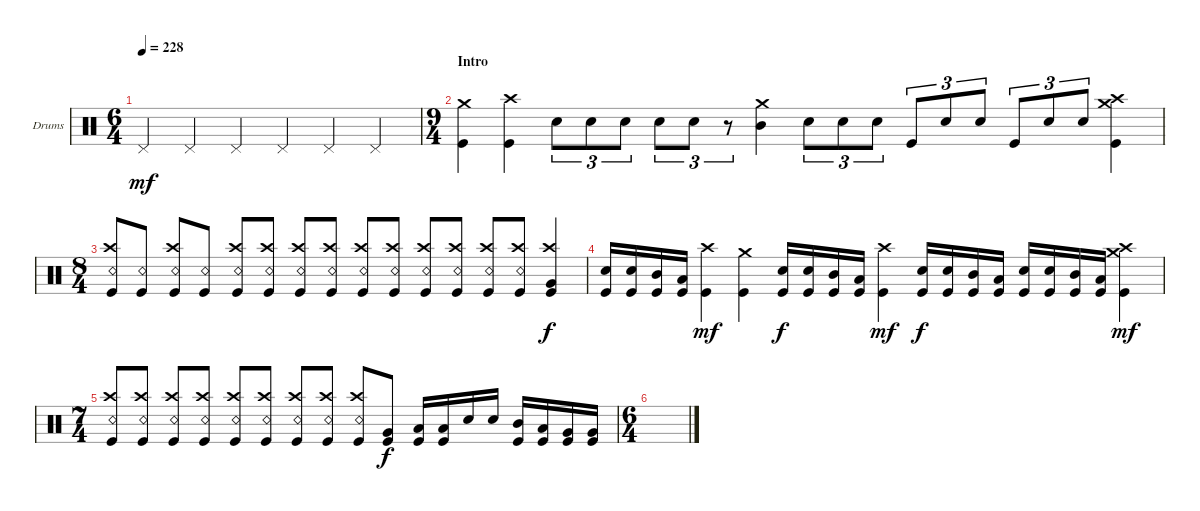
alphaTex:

\defaultSystemsLayout 4
\bracketExtendMode groupsimilarinstruments
\firstSystemTrackNameOrientation horizontal
\otherSystemsTrackNameOrientation horizontal
\track ("Samuel Santiago" "Drums") {instrument percussion}
\staff {score}
\articulation defaults
\ts (6 4)
\tempo 228
\clef neutral
\ks c "Pedal Hi-Hat (hit)".4{dy mf} "Pedal Hi-Hat (hit)".4 "Pedal Hi-Hat (hit)".4 "Pedal Hi-Hat (hit)".4 "Pedal Hi-Hat (hit)".4 "Pedal Hi-Hat (hit)".4
|
\ts (9 4)
\section ("" "Intro")
("Kick (hit)" "Crash medium (hit)").4 ("Kick (hit)" "Crash high (hit)").4 "Snare (hit) 2".8{tu (3 2)} "Snare (hit) 2".8{tu (3 2)} "Snare (hit) 2".8{tu (3 2)} "Snare (hit) 2".8{tu (3 2)} "Snare (hit) 2".8{tu (3 2)} r.8{tu (3 2)} ("Mid Tom (hit)" "Crash medium (hit)").4 "Snare (hit) 2".8{tu (3 2)} "Snare (hit) 2".8{tu (3 2)} "Snare (hit) 2".8{tu (3 2)} "Kick (hit)".8{tu (3 2)} "Snare (hit) 2".8{tu (3 2)} "Snare (hit) 2".8{tu (3 2)} "Kick (hit)".8{tu (3 2)} "Snare (hit) 2".8{tu (3 2)} "Snare (hit) 2".8{tu (3 2)} ("Kick (hit)" "Crash medium (hit)" "Crash high (hit)").4 |
\ts (8 4)
("Kick (hit)" "Snare (rim shot)" "Crash high (hit)").8 ("Kick (hit)" "Snare (rim shot)").8 ("Kick (hit)" "Snare (rim shot)" "Crash high (hit)").8 ("Kick (hit)" "Snare (rim shot)").8 ("Kick (hit)" "Snare (rim shot)" "Crash high (hit)").8 ("Kick (hit)" "Snare (rim shot)" "Crash high (hit)").8 ("Kick (hit)" "Snare (rim shot)" "Crash high (hit)").8 ("Kick (hit)" "Snare (rim shot)" "Crash high (hit)").8 ("Kick (hit)" "Snare (rim shot)" "Crash high (hit)").8 ("Kick (hit)" "Snare (rim shot)" "Crash high (hit)").8 ("Kick (hit)" "Snare (rim shot)" "Crash high (hit)").8 ("Kick (hit)" "Snare (rim shot)" "Crash high (hit)").8 ("Kick (hit)" "Snare (rim shot)" "Crash high (hit)").8 ("Kick (hit)" "Snare (rim shot)" "Crash high (hit)").8 ("Kick (hit)" "Crash high (hit)" "Very Low Tom (hit)").4{dy f} |
("Snare (hit) 2" "Kick (hit)").16 ("Snare (hit) 2" "Kick (hit)").16 ("Kick (hit)" "Mid Tom (hit)").16 ("Kick (hit)" "Low Tom (hit)").16 ("Kick (hit)" "Crash high (hit)").4{dy mf} ("Kick (hit)" "Crash medium (hit)").4 ("Snare (hit) 2" "Kick (hit)").16{dy f} ("Snare (hit) 2" "Kick (hit)").16 ("Kick (hit)" "Mid Tom (hit)").16 ("Kick (hit)" "Low Tom (hit)").16 ("Kick (hit)" "Crash high (hit)").4{dy mf} ("Snare (hit) 2" "Kick (hit)").16{dy f} ("Snare (hit) 2" "Kick (hit)").16 ("Mid Tom (hit)" "Kick (hit)").16 ("Low Tom (hit)" "Kick (hit)").16 ("Snare (hit) 2" "Kick (hit)").16 ("Snare (hit) 2" "Kick (hit)").16 ("Mid Tom (hit)" "Kick (hit)").16 ("Low Tom (hit)" "Kick (hit)").16 ("Kick (hit)" "Crash medium (hit)" "Crash high (hit)").4{dy mf} |
\ts (7 4)
("Kick (hit)" "Snare (rim shot)" "Crash high (hit)").8 ("Kick (hit)" "Snare (rim shot)" "Crash high (hit)").8 ("Kick (hit)" "Snare (rim shot)" "Crash high (hit)").8 ("Kick (hit)" "Snare (rim shot)" "Crash high (hit)").8 ("Kick (hit)" "Snare (rim shot)" "Crash high (hit)").8 ("Kick (hit)" "Snare (rim shot)" "Crash high (hit)").8 ("Kick (hit)" "Snare (rim shot)" "Crash high (hit)").8 ("Kick (hit)" "Snare (rim shot)" "Crash high (hit)").8 ("Kick (hit)" "Snare (rim shot)" "Crash high (hit)").8 ("Kick (hit)" "Very Low Tom (hit)").8{dy f} ("Kick (hit)" "Low Tom (hit)").16 ("Kick (hit)" "Low Tom (hit)").16 "Snare (hit) 2".16 "Snare (hit) 2".16 ("Mid Tom (hit)" "Kick (hit)").16 ("Low Tom (hit)" "Kick (hit)").16 ("Very Low Tom (hit)" "Kick (hit)").16 ("Very Low Tom (hit)" "Kick (hit)").16 |
\ts (6 4)
